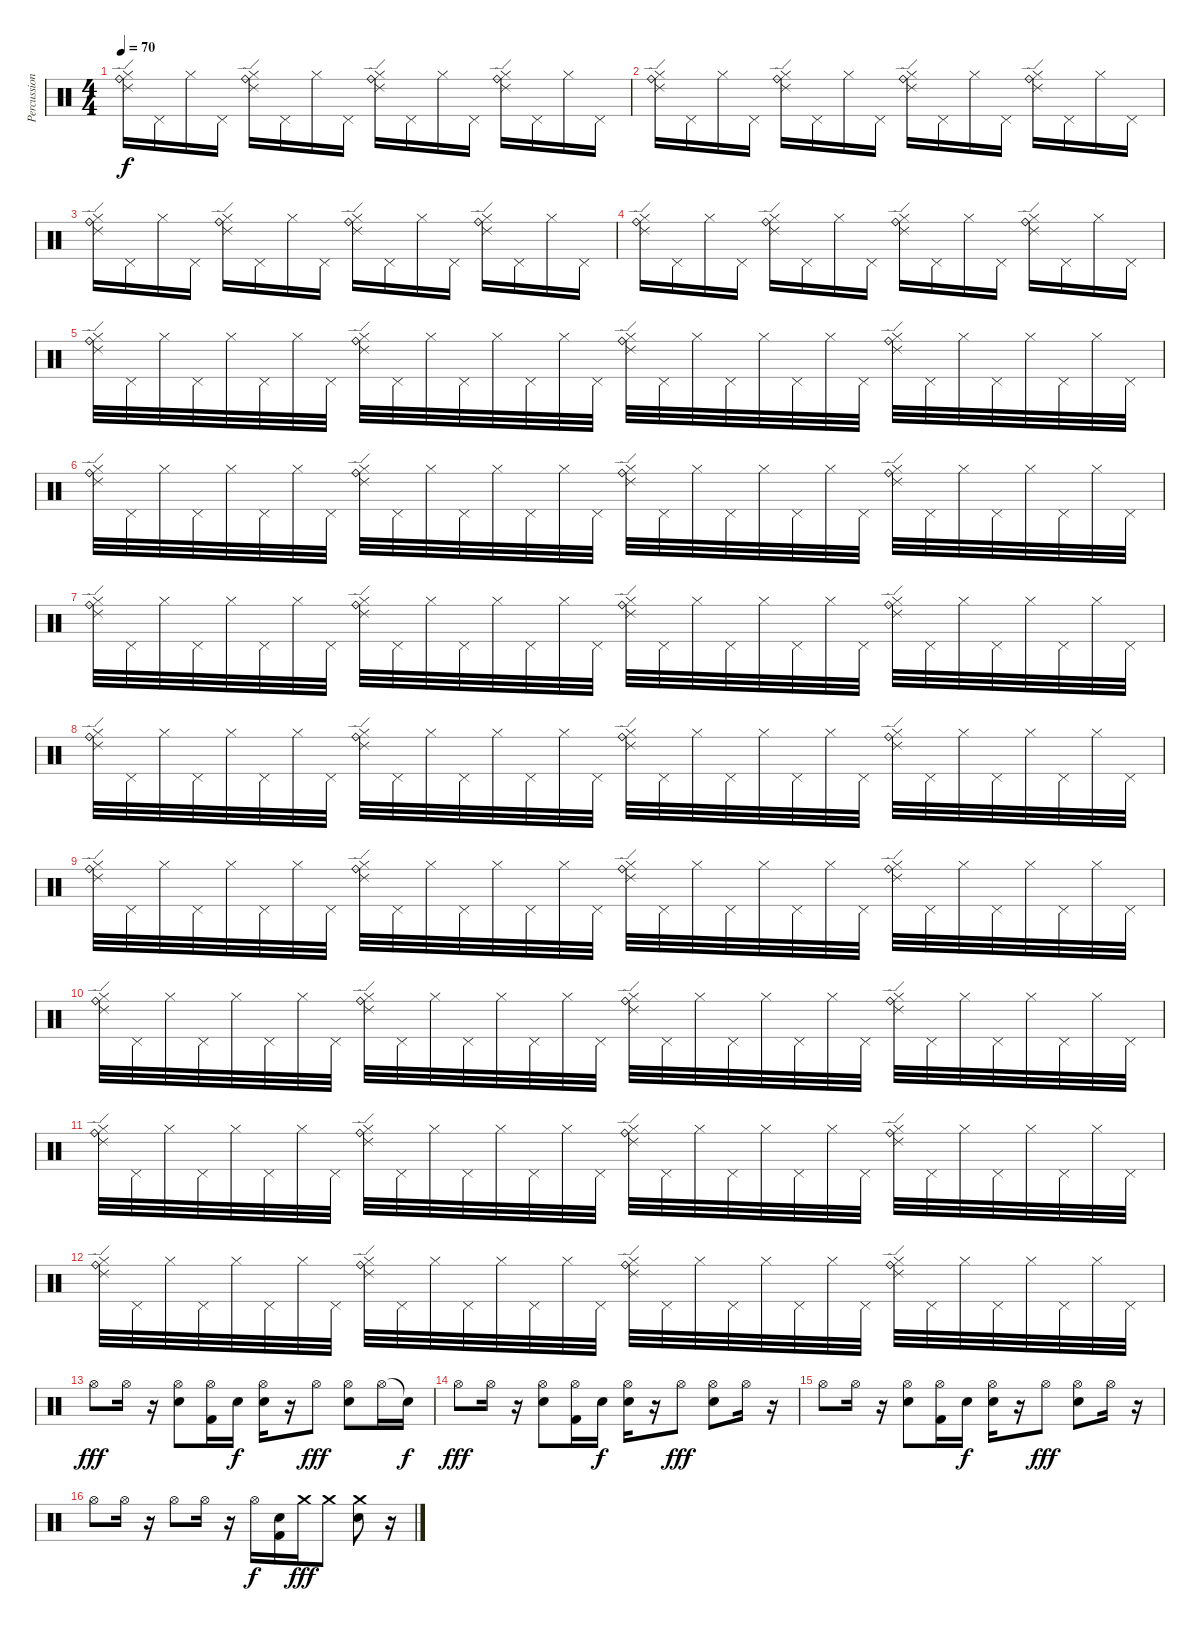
\track ("Percussion" "Percussion") {instrument percussion}
\staff {score}
\articulation defaults
\ts (4 4)
\tempo 70
\clef neutral
\ks c
("Ride (edge) 2" "Ride (bell)" "Hi-Hat (closed)").16{dy f} "Pedal Hi-Hat (hit)".16 "Hi-Hat (closed)".16 "Pedal Hi-Hat (hit)".16 ("Ride (edge) 2" "Ride (bell)" "Hi-Hat (closed)").16 "Pedal Hi-Hat (hit)".16 "Hi-Hat (closed)".16 "Pedal Hi-Hat (hit)".16 ("Ride (edge) 2" "Ride (bell)" "Hi-Hat (closed)").16 "Pedal Hi-Hat (hit)".16 "Hi-Hat (closed)".16 "Pedal Hi-Hat (hit)".16 ("Ride (edge) 2" "Ride (bell)" "Hi-Hat (closed)").16 "Pedal Hi-Hat (hit)".16 "Hi-Hat (closed)".16 "Pedal Hi-Hat (hit)".16 |
("Ride (edge) 2" "Ride (bell)" "Hi-Hat (closed)").16 "Pedal Hi-Hat (hit)".16 "Hi-Hat (closed)".16 "Pedal Hi-Hat (hit)".16 ("Ride (edge) 2" "Ride (bell)" "Hi-Hat (closed)").16 "Pedal Hi-Hat (hit)".16 "Hi-Hat (closed)".16 "Pedal Hi-Hat (hit)".16 ("Ride (edge) 2" "Ride (bell)" "Hi-Hat (closed)").16 "Pedal Hi-Hat (hit)".16 "Hi-Hat (closed)".16 "Pedal Hi-Hat (hit)".16 ("Ride (edge) 2" "Ride (bell)" "Hi-Hat (closed)").16 "Pedal Hi-Hat (hit)".16 "Hi-Hat (closed)".16 "Pedal Hi-Hat (hit)".16 |
("Ride (edge) 2" "Ride (bell)" "Hi-Hat (closed)").16 "Pedal Hi-Hat (hit)".16 "Hi-Hat (closed)".16 "Pedal Hi-Hat (hit)".16 ("Ride (edge) 2" "Ride (bell)" "Hi-Hat (closed)").16 "Pedal Hi-Hat (hit)".16 "Hi-Hat (closed)".16 "Pedal Hi-Hat (hit)".16 ("Ride (edge) 2" "Ride (bell)" "Hi-Hat (closed)").16 "Pedal Hi-Hat (hit)".16 "Hi-Hat (closed)".16 "Pedal Hi-Hat (hit)".16 ("Ride (edge) 2" "Ride (bell)" "Hi-Hat (closed)").16 "Pedal Hi-Hat (hit)".16 "Hi-Hat (closed)".16 "Pedal Hi-Hat (hit)".16 |
("Ride (edge) 2" "Ride (bell)" "Hi-Hat (closed)").16 "Pedal Hi-Hat (hit)".16 "Hi-Hat (closed)".16 "Pedal Hi-Hat (hit)".16 ("Ride (edge) 2" "Ride (bell)" "Hi-Hat (closed)").16 "Pedal Hi-Hat (hit)".16 "Hi-Hat (closed)".16 "Pedal Hi-Hat (hit)".16 ("Ride (edge) 2" "Ride (bell)" "Hi-Hat (closed)").16 "Pedal Hi-Hat (hit)".16 "Hi-Hat (closed)".16 "Pedal Hi-Hat (hit)".16 ("Ride (edge) 2" "Ride (bell)" "Hi-Hat (closed)").16 "Pedal Hi-Hat (hit)".16 "Hi-Hat (closed)".16 "Pedal Hi-Hat (hit)".16 |
("Ride (edge) 2" "Ride (bell)" "Hi-Hat (closed)").32 "Pedal Hi-Hat (hit)".32 "Hi-Hat (closed)".32 "Pedal Hi-Hat (hit)".32 "Hi-Hat (closed)".32 "Pedal Hi-Hat (hit)".32 "Hi-Hat (closed)".32 "Pedal Hi-Hat (hit)".32 ("Ride (edge) 2" "Ride (bell)" "Hi-Hat (closed)").32 "Pedal Hi-Hat (hit)".32 "Hi-Hat (closed)".32 "Pedal Hi-Hat (hit)".32 "Hi-Hat (closed)".32 "Pedal Hi-Hat (hit)".32 "Hi-Hat (closed)".32 "Pedal Hi-Hat (hit)".32 ("Ride (edge) 2" "Ride (bell)" "Hi-Hat (closed)").32 "Pedal Hi-Hat (hit)".32 "Hi-Hat (closed)".32 "Pedal Hi-Hat (hit)".32 "Hi-Hat (closed)".32 "Pedal Hi-Hat (hit)".32 "Hi-Hat (closed)".32 "Pedal Hi-Hat (hit)".32 ("Ride (edge) 2" "Ride (bell)" "Hi-Hat (closed)").32 "Pedal Hi-Hat (hit)".32 "Hi-Hat (closed)".32 "Pedal Hi-Hat (hit)".32 "Hi-Hat (closed)".32 "Pedal Hi-Hat (hit)".32 "Hi-Hat (closed)".32 "Pedal Hi-Hat (hit)".32 |
("Ride (edge) 2" "Ride (bell)" "Hi-Hat (closed)").32 "Pedal Hi-Hat (hit)".32 "Hi-Hat (closed)".32 "Pedal Hi-Hat (hit)".32 "Hi-Hat (closed)".32 "Pedal Hi-Hat (hit)".32 "Hi-Hat (closed)".32 "Pedal Hi-Hat (hit)".32 ("Ride (edge) 2" "Ride (bell)" "Hi-Hat (closed)").32 "Pedal Hi-Hat (hit)".32 "Hi-Hat (closed)".32 "Pedal Hi-Hat (hit)".32 "Hi-Hat (closed)".32 "Pedal Hi-Hat (hit)".32 "Hi-Hat (closed)".32 "Pedal Hi-Hat (hit)".32 ("Ride (edge) 2" "Ride (bell)" "Hi-Hat (closed)").32 "Pedal Hi-Hat (hit)".32 "Hi-Hat (closed)".32 "Pedal Hi-Hat (hit)".32 "Hi-Hat (closed)".32 "Pedal Hi-Hat (hit)".32 "Hi-Hat (closed)".32 "Pedal Hi-Hat (hit)".32 ("Ride (edge) 2" "Ride (bell)" "Hi-Hat (closed)").32 "Pedal Hi-Hat (hit)".32 "Hi-Hat (closed)".32 "Pedal Hi-Hat (hit)".32 "Hi-Hat (closed)".32 "Pedal Hi-Hat (hit)".32 "Hi-Hat (closed)".32 "Pedal Hi-Hat (hit)".32 |
("Ride (edge) 2" "Ride (bell)" "Hi-Hat (closed)").32 "Pedal Hi-Hat (hit)".32 "Hi-Hat (closed)".32 "Pedal Hi-Hat (hit)".32 "Hi-Hat (closed)".32 "Pedal Hi-Hat (hit)".32 "Hi-Hat (closed)".32 "Pedal Hi-Hat (hit)".32 ("Ride (edge) 2" "Ride (bell)" "Hi-Hat (closed)").32 "Pedal Hi-Hat (hit)".32 "Hi-Hat (closed)".32 "Pedal Hi-Hat (hit)".32 "Hi-Hat (closed)".32 "Pedal Hi-Hat (hit)".32 "Hi-Hat (closed)".32 "Pedal Hi-Hat (hit)".32 ("Ride (edge) 2" "Ride (bell)" "Hi-Hat (closed)").32 "Pedal Hi-Hat (hit)".32 "Hi-Hat (closed)".32 "Pedal Hi-Hat (hit)".32 "Hi-Hat (closed)".32 "Pedal Hi-Hat (hit)".32 "Hi-Hat (closed)".32 "Pedal Hi-Hat (hit)".32 ("Ride (edge) 2" "Ride (bell)" "Hi-Hat (closed)").32 "Pedal Hi-Hat (hit)".32 "Hi-Hat (closed)".32 "Pedal Hi-Hat (hit)".32 "Hi-Hat (closed)".32 "Pedal Hi-Hat (hit)".32 "Hi-Hat (closed)".32 "Pedal Hi-Hat (hit)".32 |
("Ride (edge) 2" "Ride (bell)" "Hi-Hat (closed)").32 "Pedal Hi-Hat (hit)".32 "Hi-Hat (closed)".32 "Pedal Hi-Hat (hit)".32 "Hi-Hat (closed)".32 "Pedal Hi-Hat (hit)".32 "Hi-Hat (closed)".32 "Pedal Hi-Hat (hit)".32 ("Ride (edge) 2" "Ride (bell)" "Hi-Hat (closed)").32 "Pedal Hi-Hat (hit)".32 "Hi-Hat (closed)".32 "Pedal Hi-Hat (hit)".32 "Hi-Hat (closed)".32 "Pedal Hi-Hat (hit)".32 "Hi-Hat (closed)".32 "Pedal Hi-Hat (hit)".32 ("Ride (edge) 2" "Ride (bell)" "Hi-Hat (closed)").32 "Pedal Hi-Hat (hit)".32 "Hi-Hat (closed)".32 "Pedal Hi-Hat (hit)".32 "Hi-Hat (closed)".32 "Pedal Hi-Hat (hit)".32 "Hi-Hat (closed)".32 "Pedal Hi-Hat (hit)".32 ("Ride (edge) 2" "Ride (bell)" "Hi-Hat (closed)").32 "Pedal Hi-Hat (hit)".32 "Hi-Hat (closed)".32 "Pedal Hi-Hat (hit)".32 "Hi-Hat (closed)".32 "Pedal Hi-Hat (hit)".32 "Hi-Hat (closed)".32 "Pedal Hi-Hat (hit)".32 |
("Ride (edge) 2" "Ride (bell)" "Hi-Hat (closed)").32 "Pedal Hi-Hat (hit)".32 "Hi-Hat (closed)".32 "Pedal Hi-Hat (hit)".32 "Hi-Hat (closed)".32 "Pedal Hi-Hat (hit)".32 "Hi-Hat (closed)".32 "Pedal Hi-Hat (hit)".32 ("Ride (edge) 2" "Ride (bell)" "Hi-Hat (closed)").32 "Pedal Hi-Hat (hit)".32 "Hi-Hat (closed)".32 "Pedal Hi-Hat (hit)".32 "Hi-Hat (closed)".32 "Pedal Hi-Hat (hit)".32 "Hi-Hat (closed)".32 "Pedal Hi-Hat (hit)".32 ("Ride (edge) 2" "Ride (bell)" "Hi-Hat (closed)").32 "Pedal Hi-Hat (hit)".32 "Hi-Hat (closed)".32 "Pedal Hi-Hat (hit)".32 "Hi-Hat (closed)".32 "Pedal Hi-Hat (hit)".32 "Hi-Hat (closed)".32 "Pedal Hi-Hat (hit)".32 ("Ride (edge) 2" "Ride (bell)" "Hi-Hat (closed)").32 "Pedal Hi-Hat (hit)".32 "Hi-Hat (closed)".32 "Pedal Hi-Hat (hit)".32 "Hi-Hat (closed)".32 "Pedal Hi-Hat (hit)".32 "Hi-Hat (closed)".32 "Pedal Hi-Hat (hit)".32 |
("Ride (edge) 2" "Ride (bell)" "Hi-Hat (closed)").32 "Pedal Hi-Hat (hit)".32 "Hi-Hat (closed)".32 "Pedal Hi-Hat (hit)".32 "Hi-Hat (closed)".32 "Pedal Hi-Hat (hit)".32 "Hi-Hat (closed)".32 "Pedal Hi-Hat (hit)".32 ("Ride (edge) 2" "Ride (bell)" "Hi-Hat (closed)").32 "Pedal Hi-Hat (hit)".32 "Hi-Hat (closed)".32 "Pedal Hi-Hat (hit)".32 "Hi-Hat (closed)".32 "Pedal Hi-Hat (hit)".32 "Hi-Hat (closed)".32 "Pedal Hi-Hat (hit)".32 ("Ride (edge) 2" "Ride (bell)" "Hi-Hat (closed)").32 "Pedal Hi-Hat (hit)".32 "Hi-Hat (closed)".32 "Pedal Hi-Hat (hit)".32 "Hi-Hat (closed)".32 "Pedal Hi-Hat (hit)".32 "Hi-Hat (closed)".32 "Pedal Hi-Hat (hit)".32 ("Ride (edge) 2" "Ride (bell)" "Hi-Hat (closed)").32 "Pedal Hi-Hat (hit)".32 "Hi-Hat (closed)".32 "Pedal Hi-Hat (hit)".32 "Hi-Hat (closed)".32 "Pedal Hi-Hat (hit)".32 "Hi-Hat (closed)".32 "Pedal Hi-Hat (hit)".32 |
("Ride (edge) 2" "Ride (bell)" "Hi-Hat (closed)").32 "Pedal Hi-Hat (hit)".32 "Hi-Hat (closed)".32 "Pedal Hi-Hat (hit)".32 "Hi-Hat (closed)".32 "Pedal Hi-Hat (hit)".32 "Hi-Hat (closed)".32 "Pedal Hi-Hat (hit)".32 ("Ride (edge) 2" "Ride (bell)" "Hi-Hat (closed)").32 "Pedal Hi-Hat (hit)".32 "Hi-Hat (closed)".32 "Pedal Hi-Hat (hit)".32 "Hi-Hat (closed)".32 "Pedal Hi-Hat (hit)".32 "Hi-Hat (closed)".32 "Pedal Hi-Hat (hit)".32 ("Ride (edge) 2" "Ride (bell)" "Hi-Hat (closed)").32 "Pedal Hi-Hat (hit)".32 "Hi-Hat (closed)".32 "Pedal Hi-Hat (hit)".32 "Hi-Hat (closed)".32 "Pedal Hi-Hat (hit)".32 "Hi-Hat (closed)".32 "Pedal Hi-Hat (hit)".32 ("Ride (edge) 2" "Ride (bell)" "Hi-Hat (closed)").32 "Pedal Hi-Hat (hit)".32 "Hi-Hat (closed)".32 "Pedal Hi-Hat (hit)".32 "Hi-Hat (closed)".32 "Pedal Hi-Hat (hit)".32 "Hi-Hat (closed)".32 "Pedal Hi-Hat (hit)".32 |
("Ride (edge) 2" "Ride (bell)" "Hi-Hat (closed)").32 "Pedal Hi-Hat (hit)".32 "Hi-Hat (closed)".32 "Pedal Hi-Hat (hit)".32 "Hi-Hat (closed)".32 "Pedal Hi-Hat (hit)".32 "Hi-Hat (closed)".32 "Pedal Hi-Hat (hit)".32 ("Ride (edge) 2" "Ride (bell)" "Hi-Hat (closed)").32 "Pedal Hi-Hat (hit)".32 "Hi-Hat (closed)".32 "Pedal Hi-Hat (hit)".32 "Hi-Hat (closed)".32 "Pedal Hi-Hat (hit)".32 "Hi-Hat (closed)".32 "Pedal Hi-Hat (hit)".32 ("Ride (edge) 2" "Ride (bell)" "Hi-Hat (closed)").32 "Pedal Hi-Hat (hit)".32 "Hi-Hat (closed)".32 "Pedal Hi-Hat (hit)".32 "Hi-Hat (closed)".32 "Pedal Hi-Hat (hit)".32 "Hi-Hat (closed)".32 "Pedal Hi-Hat (hit)".32 ("Ride (edge) 2" "Ride (bell)" "Hi-Hat (closed)").32 "Pedal Hi-Hat (hit)".32 "Hi-Hat (closed)".32 "Pedal Hi-Hat (hit)".32 "Hi-Hat (closed)".32 "Pedal Hi-Hat (hit)".32 "Hi-Hat (closed)".32 "Pedal Hi-Hat (hit)".32 |
"Hi-Hat (open)".8{dy fff} "Hi-Hat (open)".16 r.16 ("Hi-Hat (open)" "Electric Snare (hit)").8 ("Hi-Hat (open)" "Kick (hit) 2").16 "Electric Snare (hit)".16{dy f} ("Hi-Hat (open)" "Electric Snare (hit)").16 r.16 "Hi-Hat (open)".8{dy fff} ("Hi-Hat (open)" "Electric Snare (hit)").8 "Hi-Hat (open)".16 "Snare (hit)"{t}.16{dy f} |
"Hi-Hat (open)".8{dy fff} "Hi-Hat (open)".16 r.16 ("Hi-Hat (open)" "Electric Snare (hit)").8 ("Hi-Hat (open)" "Kick (hit) 2").16 "Electric Snare (hit)".16{dy f} ("Hi-Hat (open)" "Electric Snare (hit)").16 r.16 "Hi-Hat (open)".8{dy fff} ("Hi-Hat (open)" "Electric Snare (hit)").8 "Hi-Hat (open)".16 r.16 |
"Hi-Hat (open)".8 "Hi-Hat (open)".16 r.16 ("Hi-Hat (open)" "Electric Snare (hit)").8 ("Hi-Hat (open)" "Kick (hit) 2").16 "Electric Snare (hit)".16{dy f} ("Hi-Hat (open)" "Electric Snare (hit)").16 r.16 "Hi-Hat (open)".8{dy fff} ("Hi-Hat (open)" "Electric Snare (hit)").8 "Hi-Hat (open)".16 r.16 |
"Hi-Hat (open)".8 "Hi-Hat (open)".16 r.16 "Hi-Hat (open)".8 "Hi-Hat (open)".16 r.16 "Hi-Hat (open)".16{dy f} ("Electric Snare (hit)" "Kick (hit) 2").16 "Crash medium (hit)".16{dy fff} "Crash medium (hit)".8 ("Crash medium (hit)" "Electric Snare (hit)").8 r.16
